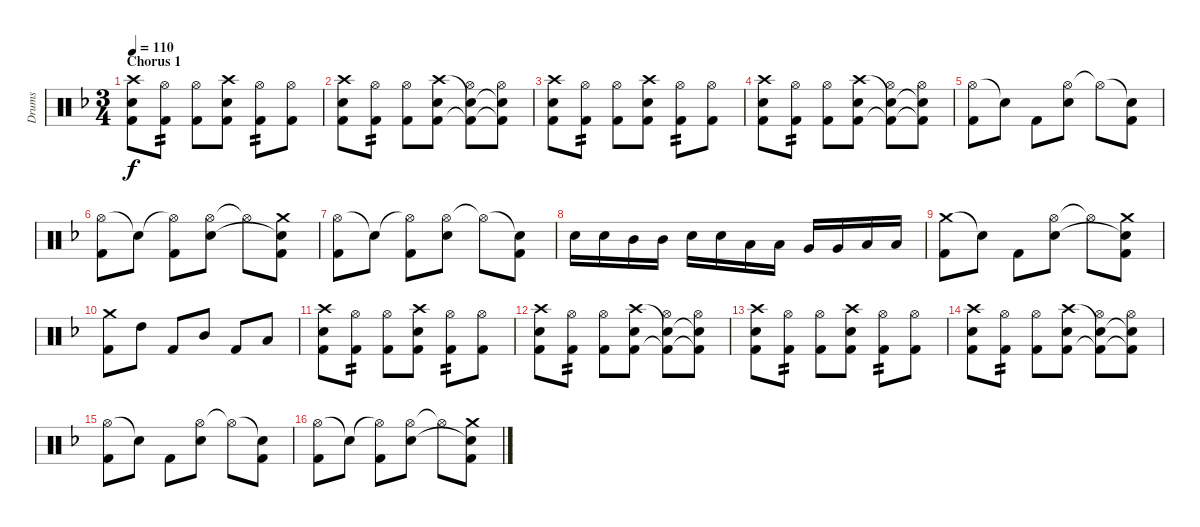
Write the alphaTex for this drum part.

\track ("Drums" "Drums") {instrument percussion}
\staff {score}
\articulation defaults
\ts (3 4)
\section ("" "Chorus 1")
\tempo 110
\clef neutral
\ks dminor
("Crash high (hit)" "Snare (hit) 2" "Kick (hit) 2").8{dy f} ("Hi-Hat (open)" "Kick (hit) 2").8{tp 2} ("Hi-Hat (open)" "Kick (hit) 2").8 ("Crash high (hit)" "Snare (hit) 2" "Kick (hit) 2").8 ("Hi-Hat (open)" "Kick (hit) 2").8{tp 2} ("Hi-Hat (open)" "Kick (hit) 2").8 |
("Crash high (hit)" "Snare (hit) 2" "Kick (hit) 2").8 ("Hi-Hat (open)" "Kick (hit) 2").8{tp 2} ("Hi-Hat (open)" "Kick (hit) 2").8 ("Crash high (hit)" "Snare (hit) 2" "Kick (hit) 2").8 ("Snare (hit)"{t} "Hi-Hat (open)" "Kick (hit) 2"{t}).8 ("Snare (hit)"{t} "Hi-Hat (open)" "Kick (hit) 2"{t}).8 |
("Crash high (hit)" "Snare (hit) 2" "Kick (hit) 2").8 ("Hi-Hat (open)" "Kick (hit) 2").8{tp 2} ("Hi-Hat (open)" "Kick (hit) 2").8 ("Crash high (hit)" "Snare (hit) 2" "Kick (hit) 2").8 ("Hi-Hat (open)" "Kick (hit) 2").8{tp 2} ("Hi-Hat (open)" "Kick (hit) 2").8 |
("Crash high (hit)" "Snare (hit) 2" "Kick (hit) 2").8 ("Hi-Hat (open)" "Kick (hit) 2").8{tp 2} ("Hi-Hat (open)" "Kick (hit) 2").8 ("Crash high (hit)" "Snare (hit) 2" "Kick (hit) 2").8 ("Snare (hit)"{t} "Hi-Hat (open)" "Kick (hit) 2"{t}).8 ("Snare (hit)"{t} "Hi-Hat (open)" "Kick (hit) 2"{t}).8 |
("Hi-Hat (open)" "Kick (hit) 2").8 "Snare (hit)"{t}.8 "Kick (hit) 2".8 ("Hi-Hat (open)" "Snare (hit) 2").8 "Hi-Hat (open)"{t}.8 ("Snare (hit)"{t} "Kick (hit) 2").8 |
("Hi-Hat (open)" "Kick (hit) 2").8 "Snare (hit)"{t}.8 ("Hi-Hat (open)"{t} "Kick (hit) 2").8 ("Hi-Hat (open)" "Snare (hit) 2").8 "Hi-Hat (open)"{t}.8 ("Crash medium (hit)" "Snare (hit)"{t} "Kick (hit) 2").8 |
("Hi-Hat (open)" "Kick (hit) 2").8 "Snare (hit)"{t}.8 ("Hi-Hat (open)"{t} "Kick (hit) 2").8 ("Hi-Hat (open)" "Snare (hit) 2").8 "Hi-Hat (open)"{t}.8 ("Snare (hit)"{t} "Kick (hit) 2").8 |
"Snare (hit) 2".16 "Snare (hit) 2".16 "Mid Tom (hit)".16 "Mid Tom (hit)".16 "Snare (hit) 2".16 "Snare (hit) 2".16 "Low Tom (hit)".16 "Low Tom (hit)".16 "Very Low Tom (hit)".16 "Very Low Tom (hit)".16 "Low Floor Tom (hit)".16 "Low Floor Tom (hit)".16 |
("Crash medium (hit)" "Kick (hit) 2").8 "Snare (hit)"{t}.8 "Kick (hit) 2".8 ("Hi-Hat (open)" "Snare (hit) 2").8 "Hi-Hat (open)"{t}.8 ("Crash medium (hit)" "Snare (hit)"{t} "Kick (hit) 2").8 |
("Crash medium (hit)" "Kick (hit) 2").8 "High Tom (hit)".8 "Kick (hit) 2".8 "Mid Tom (hit)".8 "Kick (hit) 2".8 "Low Tom (hit)".8 |
("Crash high (hit)" "Snare (hit) 2" "Kick (hit) 2").8 ("Hi-Hat (open)" "Kick (hit) 2").8{tp 2} ("Hi-Hat (open)" "Kick (hit) 2").8 ("Crash high (hit)" "Snare (hit) 2" "Kick (hit) 2").8 ("Hi-Hat (open)" "Kick (hit) 2").8{tp 2} ("Hi-Hat (open)" "Kick (hit) 2").8 |
("Crash high (hit)" "Snare (hit) 2" "Kick (hit) 2").8 ("Hi-Hat (open)" "Kick (hit) 2").8{tp 2} ("Hi-Hat (open)" "Kick (hit) 2").8 ("Crash high (hit)" "Snare (hit) 2" "Kick (hit) 2").8 ("Snare (hit)"{t} "Hi-Hat (open)" "Kick (hit) 2"{t}).8 ("Snare (hit)"{t} "Hi-Hat (open)" "Kick (hit) 2"{t}).8 |
("Crash high (hit)" "Snare (hit) 2" "Kick (hit) 2").8 ("Hi-Hat (open)" "Kick (hit) 2").8{tp 2} ("Hi-Hat (open)" "Kick (hit) 2").8 ("Crash high (hit)" "Snare (hit) 2" "Kick (hit) 2").8 ("Hi-Hat (open)" "Kick (hit) 2").8{tp 2} ("Hi-Hat (open)" "Kick (hit) 2").8 |
("Crash high (hit)" "Snare (hit) 2" "Kick (hit) 2").8 ("Hi-Hat (open)" "Kick (hit) 2").8{tp 2} ("Hi-Hat (open)" "Kick (hit) 2").8 ("Crash high (hit)" "Snare (hit) 2" "Kick (hit) 2").8 ("Snare (hit)"{t} "Hi-Hat (open)" "Kick (hit) 2"{t}).8 ("Snare (hit)"{t} "Hi-Hat (open)" "Kick (hit) 2"{t}).8 |
("Hi-Hat (open)" "Kick (hit) 2").8 "Snare (hit)"{t}.8 "Kick (hit) 2".8 ("Hi-Hat (open)" "Snare (hit) 2").8 "Hi-Hat (open)"{t}.8 ("Snare (hit)"{t} "Kick (hit) 2").8 |
("Hi-Hat (open)" "Kick (hit) 2").8 "Snare (hit)"{t}.8 ("Hi-Hat (open)"{t} "Kick (hit) 2").8 ("Hi-Hat (open)" "Snare (hit) 2").8 "Hi-Hat (open)"{t}.8 ("Crash medium (hit)" "Snare (hit)"{t} "Kick (hit) 2").8
